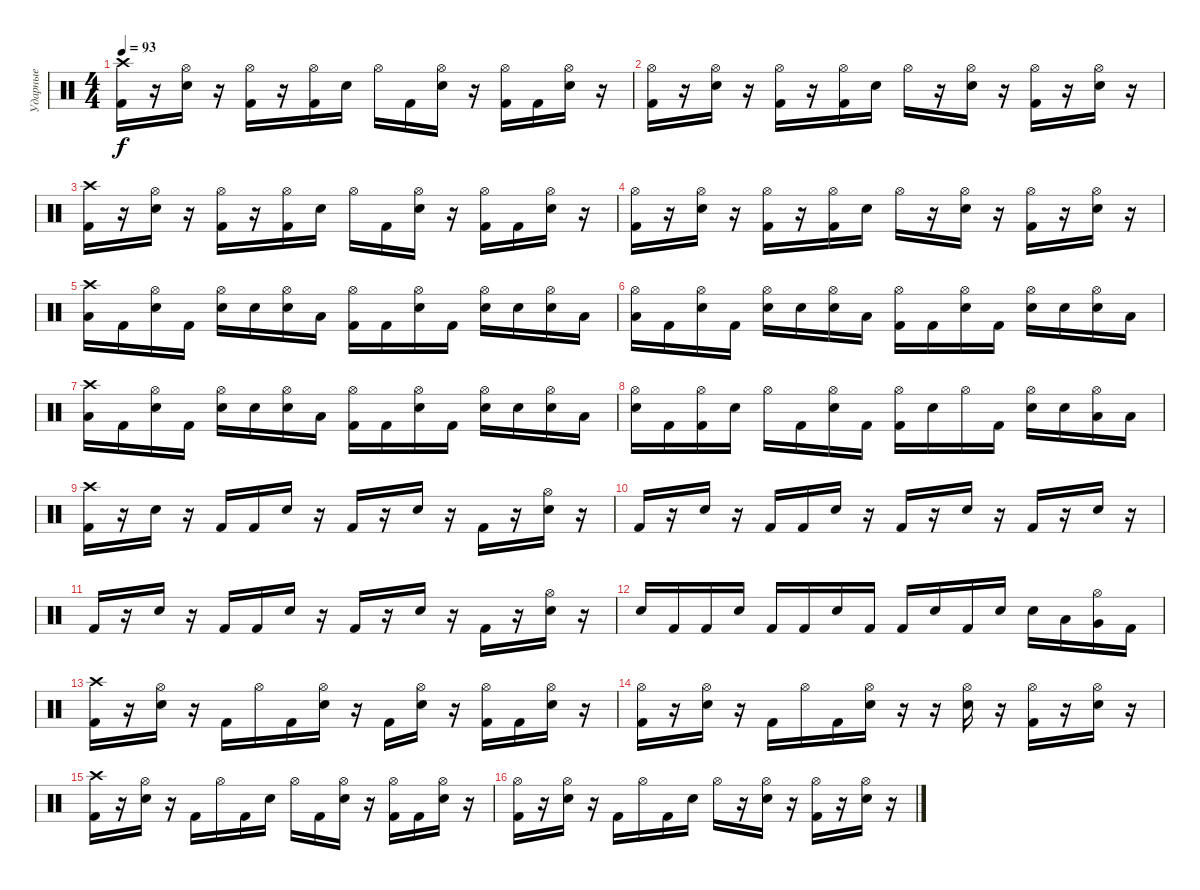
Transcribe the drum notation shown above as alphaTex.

\track ("Ударные" "Ударные") {instrument percussion}
\staff {score}
\articulation defaults
\ts (4 4)
\tempo 93
\clef neutral
\ks c
("Crash high (hit)" "Kick (hit) 2").16{dy f} r.16 ("Hi-Hat (open)" "Snare (hit) 2").16 r.16 ("Hi-Hat (open)" "Kick (hit) 2").16 r.16 ("Hi-Hat (open)" "Kick (hit) 2").16 "Snare (hit) 2".16 "Hi-Hat (open)".16 "Kick (hit) 2".16 ("Hi-Hat (open)" "Snare (hit) 2").16 r.16 ("Hi-Hat (open)" "Kick (hit) 2").16 "Kick (hit) 2".16 ("Hi-Hat (open)" "Snare (hit) 2").16 r.16 |
("Hi-Hat (open)" "Kick (hit) 2").16 r.16 ("Hi-Hat (open)" "Snare (hit) 2").16 r.16 ("Hi-Hat (open)" "Kick (hit) 2").16 r.16 ("Hi-Hat (open)" "Kick (hit) 2").16 "Snare (hit) 2".16 "Hi-Hat (open)".16 r.16 ("Hi-Hat (open)" "Snare (hit) 2").16 r.16 ("Hi-Hat (open)" "Kick (hit) 2").16 r.16 ("Hi-Hat (open)" "Snare (hit) 2").16 r.16 |
("Crash high (hit)" "Kick (hit) 2").16 r.16 ("Hi-Hat (open)" "Snare (hit) 2").16 r.16 ("Hi-Hat (open)" "Kick (hit) 2").16 r.16 ("Hi-Hat (open)" "Kick (hit) 2").16 "Snare (hit) 2".16 "Hi-Hat (open)".16 "Kick (hit) 2".16 ("Hi-Hat (open)" "Snare (hit) 2").16 r.16 ("Hi-Hat (open)" "Kick (hit) 2").16 "Kick (hit) 2".16 ("Hi-Hat (open)" "Snare (hit) 2").16 r.16 |
("Hi-Hat (open)" "Kick (hit) 2").16 r.16 ("Hi-Hat (open)" "Snare (hit) 2").16 r.16 ("Hi-Hat (open)" "Kick (hit) 2").16 r.16 ("Hi-Hat (open)" "Kick (hit) 2").16 "Snare (hit) 2".16 "Hi-Hat (open)".16 r.16 ("Hi-Hat (open)" "Snare (hit) 2").16 r.16 ("Hi-Hat (open)" "Kick (hit) 2").16 r.16 ("Hi-Hat (open)" "Snare (hit) 2").16 r.16 |
("Crash high (hit)" "Low Floor Tom (hit)").16 "Kick (hit) 2".16 ("Hi-Hat (open)" "Snare (hit) 2").16 "Kick (hit) 2".16 ("Hi-Hat (open)" "Snare (hit) 2").16 "Snare (hit) 2".16 ("Hi-Hat (open)" "Snare (hit) 2").16 "Low Floor Tom (hit)".16 ("Hi-Hat (open)" "Kick (hit) 2").16 "Kick (hit) 2".16 ("Hi-Hat (open)" "Snare (hit) 2").16 "Kick (hit) 2".16 ("Hi-Hat (open)" "Snare (hit) 2").16 "Snare (hit) 2".16 ("Hi-Hat (open)" "Snare (hit) 2").16 "Low Floor Tom (hit)".16 |
("Hi-Hat (open)" "Low Floor Tom (hit)").16 "Kick (hit) 2".16 ("Hi-Hat (open)" "Snare (hit) 2").16 "Kick (hit) 2".16 ("Hi-Hat (open)" "Snare (hit) 2").16 "Snare (hit) 2".16 ("Hi-Hat (open)" "Snare (hit) 2").16 "Low Floor Tom (hit)".16 ("Hi-Hat (open)" "Kick (hit) 2").16 "Kick (hit) 2".16 ("Hi-Hat (open)" "Snare (hit) 2").16 "Kick (hit) 2".16 ("Hi-Hat (open)" "Snare (hit) 2").16 "Snare (hit) 2".16 ("Hi-Hat (open)" "Snare (hit) 2").16 "Low Floor Tom (hit)".16 |
("Crash high (hit)" "Low Floor Tom (hit)").16 "Kick (hit) 2".16 ("Hi-Hat (open)" "Snare (hit) 2").16 "Kick (hit) 2".16 ("Hi-Hat (open)" "Snare (hit) 2").16 "Snare (hit) 2".16 ("Hi-Hat (open)" "Snare (hit) 2").16 "Low Floor Tom (hit)".16 ("Hi-Hat (open)" "Kick (hit) 2").16 "Kick (hit) 2".16 ("Hi-Hat (open)" "Snare (hit) 2").16 "Kick (hit) 2".16 ("Hi-Hat (open)" "Snare (hit) 2").16 "Snare (hit) 2".16 ("Hi-Hat (open)" "Snare (hit) 2").16 "Low Floor Tom (hit)".16 |
("Hi-Hat (open)" "Snare (hit) 2").16 "Kick (hit) 2".16 ("Hi-Hat (open)" "Kick (hit) 2").16 "Snare (hit) 2".16 "Hi-Hat (open)".16 "Kick (hit) 2".16 ("Hi-Hat (open)" "Snare (hit) 2").16 "Kick (hit) 2".16 ("Hi-Hat (open)" "Kick (hit) 2").16 "Snare (hit) 2".16 "Hi-Hat (open)".16 "Kick (hit) 2".16 ("Hi-Hat (open)" "Snare (hit) 2").16 "Snare (hit) 2".16 ("Hi-Hat (open)" "Low Floor Tom (hit)").16 "Low Floor Tom (hit)".16 |
("Crash high (hit)" "Kick (hit) 2").16 r.16 "Snare (hit) 2".16 r.16 "Kick (hit) 2".16 "Kick (hit) 2".16 "Snare (hit) 2".16 r.16 "Kick (hit) 2".16 r.16 "Snare (hit) 2".16 r.16 "Kick (hit) 2".16 r.16 ("Hi-Hat (open)" "Snare (hit) 2").16 r.16 |
"Kick (hit) 2".16 r.16 "Snare (hit) 2".16 r.16 "Kick (hit) 2".16 "Kick (hit) 2".16 "Snare (hit) 2".16 r.16 "Kick (hit) 2".16 r.16 "Snare (hit) 2".16 r.16 "Kick (hit) 2".16 r.16 "Snare (hit) 2".16 r.16 |
"Kick (hit) 2".16 r.16 "Snare (hit) 2".16 r.16 "Kick (hit) 2".16 "Kick (hit) 2".16 "Snare (hit) 2".16 r.16 "Kick (hit) 2".16 r.16 "Snare (hit) 2".16 r.16 "Kick (hit) 2".16 r.16 ("Hi-Hat (open)" "Snare (hit) 2").16 r.16 |
"Snare (hit) 2".16 "Kick (hit) 2".16 "Kick (hit) 2".16 "Snare (hit) 2".16 "Kick (hit) 2".16 "Kick (hit) 2".16 "Snare (hit) 2".16 "Kick (hit) 2".16 "Kick (hit) 2".16 "Snare (hit) 2".16 "Kick (hit) 2".16 "Snare (hit) 2".16 "Snare (hit) 2".16 "Low Floor Tom (hit)".16 ("Hi-Hat (open)" "Very Low Tom (hit)").16 "Kick (hit) 2".16 |
("Crash high (hit)" "Kick (hit) 2").16 r.16 ("Hi-Hat (open)" "Snare (hit) 2").16 r.16 "Kick (hit) 2".16 "Hi-Hat (open)".16 "Kick (hit) 2".16 ("Hi-Hat (open)" "Snare (hit) 2").16 r.16 "Kick (hit) 2".16 ("Hi-Hat (open)" "Snare (hit) 2").16 r.16 ("Hi-Hat (open)" "Kick (hit) 2").16 "Kick (hit) 2".16 ("Hi-Hat (open)" "Snare (hit) 2").16 r.16 |
("Hi-Hat (open)" "Kick (hit) 2").16 r.16 ("Hi-Hat (open)" "Snare (hit) 2").16 r.16 "Kick (hit) 2".16 "Hi-Hat (open)".16 "Kick (hit) 2".16 ("Hi-Hat (open)" "Snare (hit) 2").16 r.16 r.16 ("Hi-Hat (open)" "Snare (hit) 2").16 r.16 ("Hi-Hat (open)" "Kick (hit) 2").16 r.16 ("Hi-Hat (open)" "Snare (hit) 2").16 r.16 |
("Crash high (hit)" "Kick (hit) 2").16 r.16 ("Hi-Hat (open)" "Snare (hit) 2").16 r.16 "Kick (hit) 2".16 "Hi-Hat (open)".16 "Kick (hit) 2".16 "Snare (hit) 2".16 "Hi-Hat (open)".16 "Kick (hit) 2".16 ("Hi-Hat (open)" "Snare (hit) 2").16 r.16 ("Hi-Hat (open)" "Kick (hit) 2").16 "Kick (hit) 2".16 ("Hi-Hat (open)" "Snare (hit) 2").16 r.16 |
("Hi-Hat (open)" "Kick (hit) 2").16 r.16 ("Hi-Hat (open)" "Snare (hit) 2").16 r.16 "Kick (hit) 2".16 "Hi-Hat (open)".16 "Kick (hit) 2".16 "Snare (hit) 2".16 "Hi-Hat (open)".16 r.16 ("Hi-Hat (open)" "Snare (hit) 2").16 r.16 ("Hi-Hat (open)" "Kick (hit) 2").16 r.16 ("Hi-Hat (open)" "Snare (hit) 2").16 r.16
